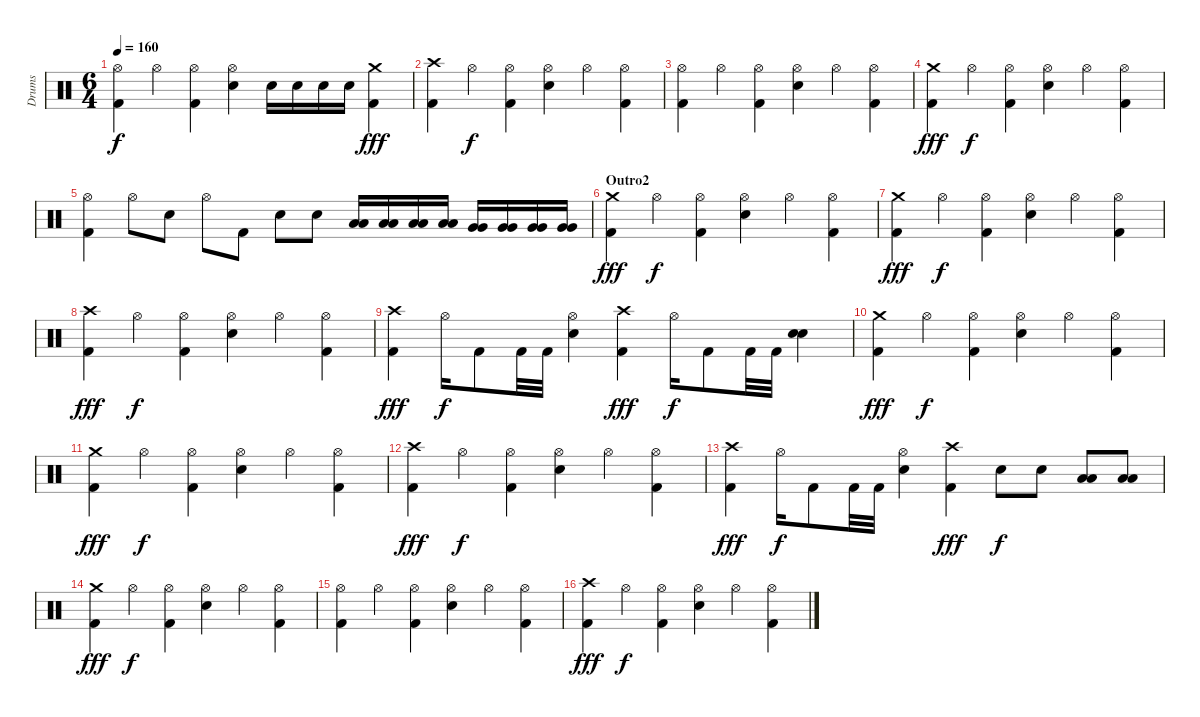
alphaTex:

\track ("Drums" "Drums") {instrument percussion}
\staff {score}
\articulation defaults
\ts (6 4)
\tempo 160
\clef neutral
\ks c
("Kick (hit) 2" "Hi-Hat (open)").4{dy f} "Hi-Hat (open)".4 ("Kick (hit) 2" "Hi-Hat (open)").4 ("Electric Snare (hit)" "Hi-Hat (open)").4 "Electric Snare (hit)".16 "Electric Snare (hit)".16 "Electric Snare (hit)".16 "Electric Snare (hit)".16 ("Kick (hit) 2" "Crash medium (hit)").4{dy fff} |
("Kick (hit) 2" "Crash high (hit)").4 "Hi-Hat (open)".4{dy f} ("Kick (hit) 2" "Hi-Hat (open)").4 ("Electric Snare (hit)" "Hi-Hat (open)").4 "Hi-Hat (open)".4 ("Kick (hit) 2" "Hi-Hat (open)").4 |
("Kick (hit) 2" "Hi-Hat (open)").4 "Hi-Hat (open)".4 ("Kick (hit) 2" "Hi-Hat (open)").4 ("Electric Snare (hit)" "Hi-Hat (open)").4 "Hi-Hat (open)".4 ("Kick (hit) 2" "Hi-Hat (open)").4 |
("Kick (hit) 2" "Crash medium (hit)").4{dy fff} "Hi-Hat (open)".4{dy f} ("Kick (hit) 2" "Hi-Hat (open)").4 ("Electric Snare (hit)" "Hi-Hat (open)").4 "Hi-Hat (open)".4 ("Kick (hit) 2" "Hi-Hat (open)").4 |
("Kick (hit) 2" "Hi-Hat (open)").4 "Hi-Hat (open)".8 "Electric Snare (hit)".8 "Hi-Hat (open)".8 "Kick (hit) 2".8 "Electric Snare (hit)".8 "Electric Snare (hit)".8 ("Low Tom (hit)" "Low Tom (hit)").16 ("Low Tom (hit)" "Low Tom (hit)").16 ("Low Tom (hit)" "Low Tom (hit)").16 ("Low Tom (hit)" "Low Tom (hit)").16 ("Very Low Tom (hit)" "Very Low Tom (hit)").16 ("Very Low Tom (hit)" "Very Low Tom (hit)").16 ("Very Low Tom (hit)" "Very Low Tom (hit)").16 ("Very Low Tom (hit)" "Very Low Tom (hit)").16 |
\section ("" "Outro2")
("Kick (hit) 2" "Crash medium (hit)").4{dy fff} "Hi-Hat (open)".4{dy f} ("Kick (hit) 2" "Hi-Hat (open)").4 ("Electric Snare (hit)" "Hi-Hat (open)").4 "Hi-Hat (open)".4 ("Kick (hit) 2" "Hi-Hat (open)").4 |
("Kick (hit) 2" "Crash medium (hit)").4{dy fff} "Hi-Hat (open)".4{dy f} ("Kick (hit) 2" "Hi-Hat (open)").4 ("Electric Snare (hit)" "Hi-Hat (open)").4 "Hi-Hat (open)".4 ("Kick (hit) 2" "Hi-Hat (open)").4 |
("Kick (hit) 2" "Crash high (hit)").4{dy fff} "Hi-Hat (open)".4{dy f} ("Kick (hit) 2" "Hi-Hat (open)").4 ("Electric Snare (hit)" "Hi-Hat (open)").4 "Hi-Hat (open)".4 ("Kick (hit) 2" "Hi-Hat (open)").4 |
("Kick (hit) 2" "Crash high (hit)").4{dy fff} "Hi-Hat (open)".16{dy f} "Kick (hit) 2".8 "Kick (hit) 2".32 "Kick (hit) 2".32 ("Electric Snare (hit)" "Hi-Hat (open)").4 ("Kick (hit) 2" "Crash high (hit)").4{dy fff} "Hi-Hat (open)".16{dy f} "Kick (hit) 2".8 "Kick (hit) 2".32 "Kick (hit) 2".32 ("Electric Snare (hit)" "Electric Snare (hit)").4 |
("Kick (hit) 2" "Crash medium (hit)").4{dy fff} "Hi-Hat (open)".4{dy f} ("Kick (hit) 2" "Hi-Hat (open)").4 ("Electric Snare (hit)" "Hi-Hat (open)").4 "Hi-Hat (open)".4 ("Kick (hit) 2" "Hi-Hat (open)").4 |
("Kick (hit) 2" "Crash medium (hit)").4{dy fff} "Hi-Hat (open)".4{dy f} ("Kick (hit) 2" "Hi-Hat (open)").4 ("Electric Snare (hit)" "Hi-Hat (open)").4 "Hi-Hat (open)".4 ("Kick (hit) 2" "Hi-Hat (open)").4 |
("Kick (hit) 2" "Crash high (hit)").4{dy fff} "Hi-Hat (open)".4{dy f} ("Kick (hit) 2" "Hi-Hat (open)").4 ("Electric Snare (hit)" "Hi-Hat (open)").4 "Hi-Hat (open)".4 ("Kick (hit) 2" "Hi-Hat (open)").4 |
("Kick (hit) 2" "Crash high (hit)").4{dy fff} "Hi-Hat (open)".16{dy f} "Kick (hit) 2".8 "Kick (hit) 2".32 "Kick (hit) 2".32 ("Electric Snare (hit)" "Hi-Hat (open)").4 ("Kick (hit) 2" "Crash high (hit)").4{dy fff} "Electric Snare (hit)".8{dy f} "Electric Snare (hit)".8 ("Low Tom (hit)" "Low Tom (hit)").8 ("Low Tom (hit)" "Low Tom (hit)").8 |
("Kick (hit) 2" "Crash medium (hit)").4{dy fff} "Hi-Hat (open)".4{dy f} ("Kick (hit) 2" "Hi-Hat (open)").4 ("Electric Snare (hit)" "Hi-Hat (open)").4 "Hi-Hat (open)".4 ("Kick (hit) 2" "Hi-Hat (open)").4 |
("Kick (hit) 2" "Hi-Hat (open)").4 "Hi-Hat (open)".4 ("Kick (hit) 2" "Hi-Hat (open)").4 ("Electric Snare (hit)" "Hi-Hat (open)").4 "Hi-Hat (open)".4 ("Kick (hit) 2" "Hi-Hat (open)").4 |
("Kick (hit) 2" "Crash high (hit)").4{dy fff} "Hi-Hat (open)".4{dy f} ("Kick (hit) 2" "Hi-Hat (open)").4 ("Electric Snare (hit)" "Hi-Hat (open)").4 "Hi-Hat (open)".4 ("Kick (hit) 2" "Hi-Hat (open)").4
